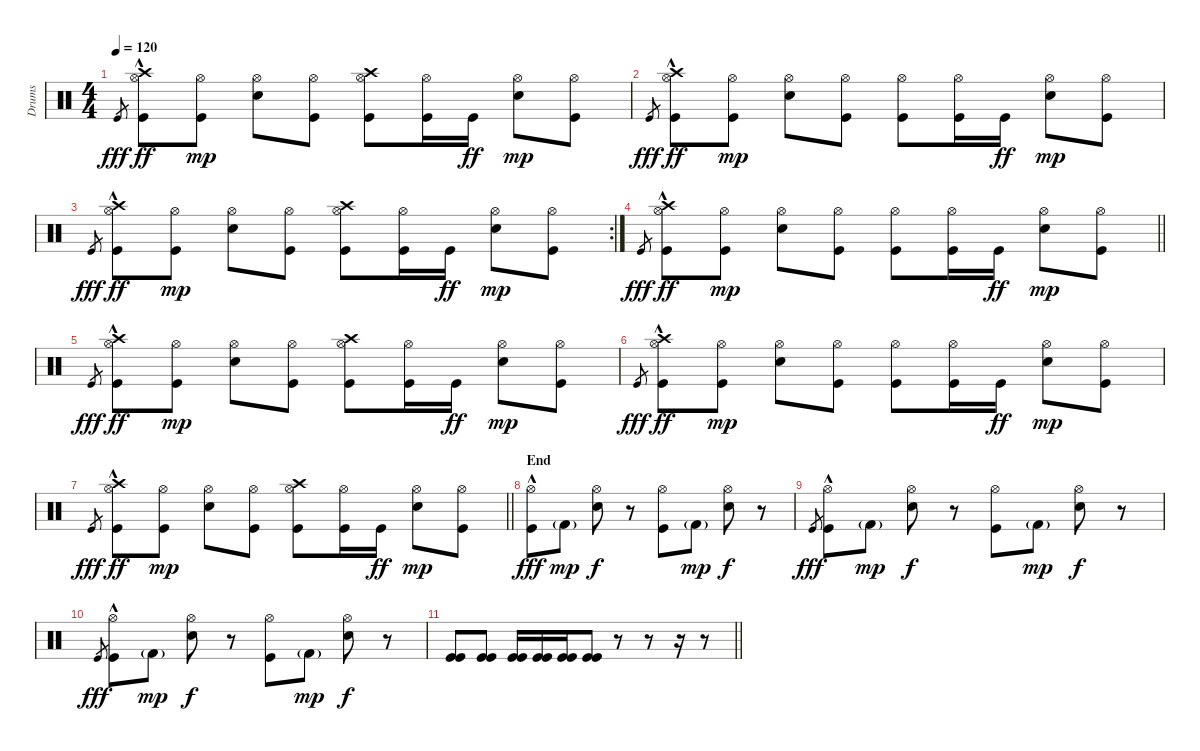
\track ("Drums" "Drums") {instrument percussion}
\staff {score}
\articulation defaults
\ts (4 4)
\tempo 120
\clef neutral
\ks c "Kick (hit)".8{gr dy fff}
("Kick (hit)"{hac} "Hi-Hat (open)" "Crash high (hit)").8{dy ff} ("Kick (hit)" "Hi-Hat (open)").8{dy mp} ("Electric Snare (hit)" "Hi-Hat (open)").8 ("Kick (hit)" "Hi-Hat (open)").8 ("Kick (hit)" "Hi-Hat (open)" "Crash high (hit)").8 ("Kick (hit)" "Hi-Hat (open)").16 "Kick (hit)".16{dy ff} ("Electric Snare (hit)" "Hi-Hat (open)").8{dy mp} ("Kick (hit)" "Hi-Hat (open)").8 |
"Kick (hit)".8{gr dy fff} ("Kick (hit)"{hac} "Hi-Hat (open)" "Crash high (hit)").8{dy ff} ("Kick (hit)" "Hi-Hat (open)").8{dy mp} ("Electric Snare (hit)" "Hi-Hat (open)").8 ("Kick (hit)" "Hi-Hat (open)").8 ("Kick (hit)" "Hi-Hat (open)").8 ("Kick (hit)" "Hi-Hat (open)").16 "Kick (hit)".16{dy ff} ("Electric Snare (hit)" "Hi-Hat (open)").8{dy mp} ("Kick (hit)" "Hi-Hat (open)").8 |
\rc 2 "Kick (hit)".8{gr dy fff}
("Kick (hit)"{hac} "Hi-Hat (open)" "Crash high (hit)").8{dy ff} ("Kick (hit)" "Hi-Hat (open)").8{dy mp} ("Electric Snare (hit)" "Hi-Hat (open)").8 ("Kick (hit)" "Hi-Hat (open)").8 ("Kick (hit)" "Hi-Hat (open)" "Crash high (hit)").8 ("Kick (hit)" "Hi-Hat (open)").16 "Kick (hit)".16{dy ff} ("Electric Snare (hit)" "Hi-Hat (open)").8{dy mp} ("Kick (hit)" "Hi-Hat (open)").8 |
\barLineRight lightlight "Kick (hit)".8{gr dy fff}
("Kick (hit)"{hac} "Hi-Hat (open)" "Crash high (hit)").8{dy ff} ("Kick (hit)" "Hi-Hat (open)").8{dy mp} ("Electric Snare (hit)" "Hi-Hat (open)").8 ("Kick (hit)" "Hi-Hat (open)").8 ("Kick (hit)" "Hi-Hat (open)").8 ("Kick (hit)" "Hi-Hat (open)").16 "Kick (hit)".16{dy ff} ("Electric Snare (hit)" "Hi-Hat (open)").8{dy mp} ("Kick (hit)" "Hi-Hat (open)").8 |
"Kick (hit)".8{gr dy fff} ("Kick (hit)"{hac} "Hi-Hat (open)" "Crash high (hit)").8{dy ff} ("Kick (hit)" "Hi-Hat (open)").8{dy mp} ("Electric Snare (hit)" "Hi-Hat (open)").8 ("Kick (hit)" "Hi-Hat (open)").8 ("Kick (hit)" "Hi-Hat (open)" "Crash high (hit)").8 ("Kick (hit)" "Hi-Hat (open)").16 "Kick (hit)".16{dy ff} ("Electric Snare (hit)" "Hi-Hat (open)").8{dy mp} ("Kick (hit)" "Hi-Hat (open)").8 |
"Kick (hit)".8{gr dy fff} ("Kick (hit)"{hac} "Hi-Hat (open)" "Crash high (hit)").8{dy ff} ("Kick (hit)" "Hi-Hat (open)").8{dy mp} ("Electric Snare (hit)" "Hi-Hat (open)").8 ("Kick (hit)" "Hi-Hat (open)").8 ("Kick (hit)" "Hi-Hat (open)").8 ("Kick (hit)" "Hi-Hat (open)").16 "Kick (hit)".16{dy ff} ("Electric Snare (hit)" "Hi-Hat (open)").8{dy mp} ("Kick (hit)" "Hi-Hat (open)").8 |
\barLineRight lightlight "Kick (hit)".8{gr dy fff}
("Kick (hit)"{hac} "Hi-Hat (open)" "Crash high (hit)").8{dy ff} ("Kick (hit)" "Hi-Hat (open)").8{dy mp} ("Electric Snare (hit)" "Hi-Hat (open)").8 ("Kick (hit)" "Hi-Hat (open)").8 ("Kick (hit)" "Hi-Hat (open)" "Crash high (hit)").8 ("Kick (hit)" "Hi-Hat (open)").16 "Kick (hit)".16{dy ff} ("Electric Snare (hit)" "Hi-Hat (open)").8{dy mp} ("Kick (hit)" "Hi-Hat (open)").8 |
\section ("" "End")
("Kick (hit)"{hac} "Hi-Hat (open)").8{dy fff} "Kick (hit) 2"{g}.8{dy mp} ("Hi-Hat (open)" "Snare (hit) 2").8{dy f} r.8 ("Kick (hit)" "Hi-Hat (open)").8 "Kick (hit) 2"{g}.8{dy mp} ("Hi-Hat (open)" "Snare (hit) 2").8{dy f} r.8 |
"Kick (hit)".8{gr dy fff} ("Kick (hit)"{hac} "Hi-Hat (open)").8 "Kick (hit) 2"{g}.8{dy mp} ("Hi-Hat (open)" "Snare (hit) 2").8{dy f} r.8 ("Kick (hit)" "Hi-Hat (open)").8 "Kick (hit) 2"{g}.8{dy mp} ("Hi-Hat (open)" "Snare (hit) 2").8{dy f} r.8 |
"Kick (hit)".8{gr dy fff} ("Kick (hit)"{hac} "Hi-Hat (open)").8 "Kick (hit) 2"{g}.8{dy mp} ("Hi-Hat (open)" "Snare (hit) 2").8{dy f} r.8 ("Kick (hit)" "Hi-Hat (open)").8 "Kick (hit) 2"{g}.8{dy mp} ("Hi-Hat (open)" "Snare (hit) 2").8{dy f} r.8 |
\barLineRight lightlight
("Kick (hit)" "Kick (hit)").8 ("Kick (hit)" "Kick (hit)").8 ("Kick (hit)" "Kick (hit)").16 ("Kick (hit)" "Kick (hit)").16 ("Kick (hit)" "Kick (hit)").16 ("Kick (hit)" "Kick (hit)").8 r.8 r.8 r.16 r.8
